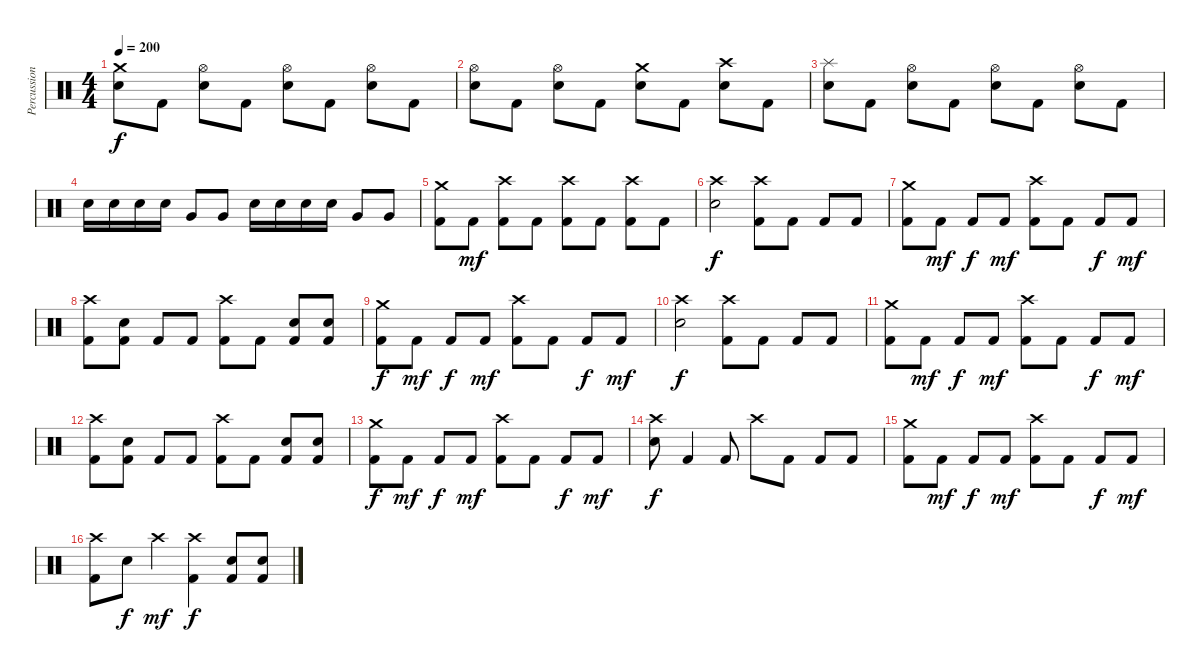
\track ("Percussions" "Percussion") {instrument percussion}
\staff {score}
\articulation defaults
\ts (4 4)
\tempo 200
\clef neutral
\ks c
("Crash medium (hit)" "Electric Snare (hit)").8{dy f} "Kick (hit) 2".8 ("Hi-Hat (open)" "Electric Snare (hit)").8 "Kick (hit) 2".8 ("Hi-Hat (open)" "Electric Snare (hit)").8 "Kick (hit) 2".8 ("Hi-Hat (open)" "Electric Snare (hit)").8 "Kick (hit) 2".8 |
("Hi-Hat (open)" "Electric Snare (hit)").8 "Kick (hit) 2".8 ("Hi-Hat (open)" "Electric Snare (hit)").8 "Kick (hit) 2".8 ("Crash medium (hit)" "Electric Snare (hit)").8 "Kick (hit) 2".8 ("Crash high (hit)" "Electric Snare (hit)").8 "Kick (hit) 2".8 |
("Splash (hit)" "Electric Snare (hit)").8 "Kick (hit) 2".8 ("Hi-Hat (open)" "Electric Snare (hit)").8 "Kick (hit) 2".8 ("Hi-Hat (open)" "Electric Snare (hit)").8 "Kick (hit) 2".8 ("Hi-Hat (open)" "Electric Snare (hit)").8 "Kick (hit) 2".8 |
"Electric Snare (hit)".16 "Electric Snare (hit)".16 "Electric Snare (hit)".16 "Electric Snare (hit)".16 "Very Low Tom (hit)".8 "Very Low Tom (hit)".8 "Electric Snare (hit)".16 "Electric Snare (hit)".16 "Electric Snare (hit)".16 "Electric Snare (hit)".16 "Very Low Tom (hit)".8 "Very Low Tom (hit)".8 |
("Crash medium (hit)" "Kick (hit) 2").8 "Kick (hit) 2".8{dy mf} ("Crash high (hit)" "Kick (hit) 2").8 "Kick (hit) 2".8 ("Crash high (hit)" "Kick (hit) 2").8 "Kick (hit) 2".8 ("Crash high (hit)" "Kick (hit) 2").8 "Kick (hit) 2".8 |
("Crash high (hit)" "Electric Snare (hit)").2{dy f} ("Crash high (hit)" "Kick (hit) 2").8 "Kick (hit) 2".8 "Kick (hit) 2".8 "Kick (hit) 2".8 |
("Crash medium (hit)" "Kick (hit) 2").8 "Kick (hit) 2".8{dy mf} "Kick (hit) 2".8{dy f} "Kick (hit) 2".8{dy mf} ("Crash high (hit)" "Kick (hit) 2").8 "Kick (hit) 2".8 "Kick (hit) 2".8{dy f} "Kick (hit) 2".8{dy mf} |
("Crash high (hit)" "Kick (hit) 2").8 ("Electric Snare (hit)" "Kick (hit) 2").8 "Kick (hit) 2".8 "Kick (hit) 2".8 ("Crash high (hit)" "Kick (hit) 2").8 "Kick (hit) 2".8 ("Electric Snare (hit)" "Kick (hit) 2").8 ("Electric Snare (hit)" "Kick (hit) 2").8 |
("Crash medium (hit)" "Kick (hit) 2").8{dy f} "Kick (hit) 2".8{dy mf} "Kick (hit) 2".8{dy f} "Kick (hit) 2".8{dy mf} ("Crash high (hit)" "Kick (hit) 2").8 "Kick (hit) 2".8 "Kick (hit) 2".8{dy f} "Kick (hit) 2".8{dy mf} |
("Crash high (hit)" "Electric Snare (hit)").2{dy f} ("Crash high (hit)" "Kick (hit) 2").8 "Kick (hit) 2".8 "Kick (hit) 2".8 "Kick (hit) 2".8 |
("Crash medium (hit)" "Kick (hit) 2").8 "Kick (hit) 2".8{dy mf} "Kick (hit) 2".8{dy f} "Kick (hit) 2".8{dy mf} ("Crash high (hit)" "Kick (hit) 2").8 "Kick (hit) 2".8 "Kick (hit) 2".8{dy f} "Kick (hit) 2".8{dy mf} |
("Crash high (hit)" "Kick (hit) 2").8 ("Electric Snare (hit)" "Kick (hit) 2").8 "Kick (hit) 2".8 "Kick (hit) 2".8 ("Crash high (hit)" "Kick (hit) 2").8 "Kick (hit) 2".8 ("Electric Snare (hit)" "Kick (hit) 2").8 ("Electric Snare (hit)" "Kick (hit) 2").8 |
("Crash medium (hit)" "Kick (hit) 2").8{dy f} "Kick (hit) 2".8{dy mf} "Kick (hit) 2".8{dy f} "Kick (hit) 2".8{dy mf} ("Crash high (hit)" "Kick (hit) 2").8 "Kick (hit) 2".8 "Kick (hit) 2".8{dy f} "Kick (hit) 2".8{dy mf} |
("Crash high (hit)" "Electric Snare (hit)").8{dy f} "Kick (hit) 2".4 "Kick (hit) 2".8 "Crash high (hit)".8 "Kick (hit) 2".8 "Kick (hit) 2".8 "Kick (hit) 2".8 |
("Crash medium (hit)" "Kick (hit) 2").8 "Kick (hit) 2".8{dy mf} "Kick (hit) 2".8{dy f} "Kick (hit) 2".8{dy mf} ("Crash high (hit)" "Kick (hit) 2").8 "Kick (hit) 2".8 "Kick (hit) 2".8{dy f} "Kick (hit) 2".8{dy mf} |
("Crash high (hit)" "Kick (hit) 2").8 "Electric Snare (hit)".8{dy f} "Crash high (hit)".4{dy mf} ("Crash high (hit)" "Kick (hit) 2").4{dy f} ("Electric Snare (hit)" "Kick (hit) 2").8 ("Electric Snare (hit)" "Kick (hit) 2").8
